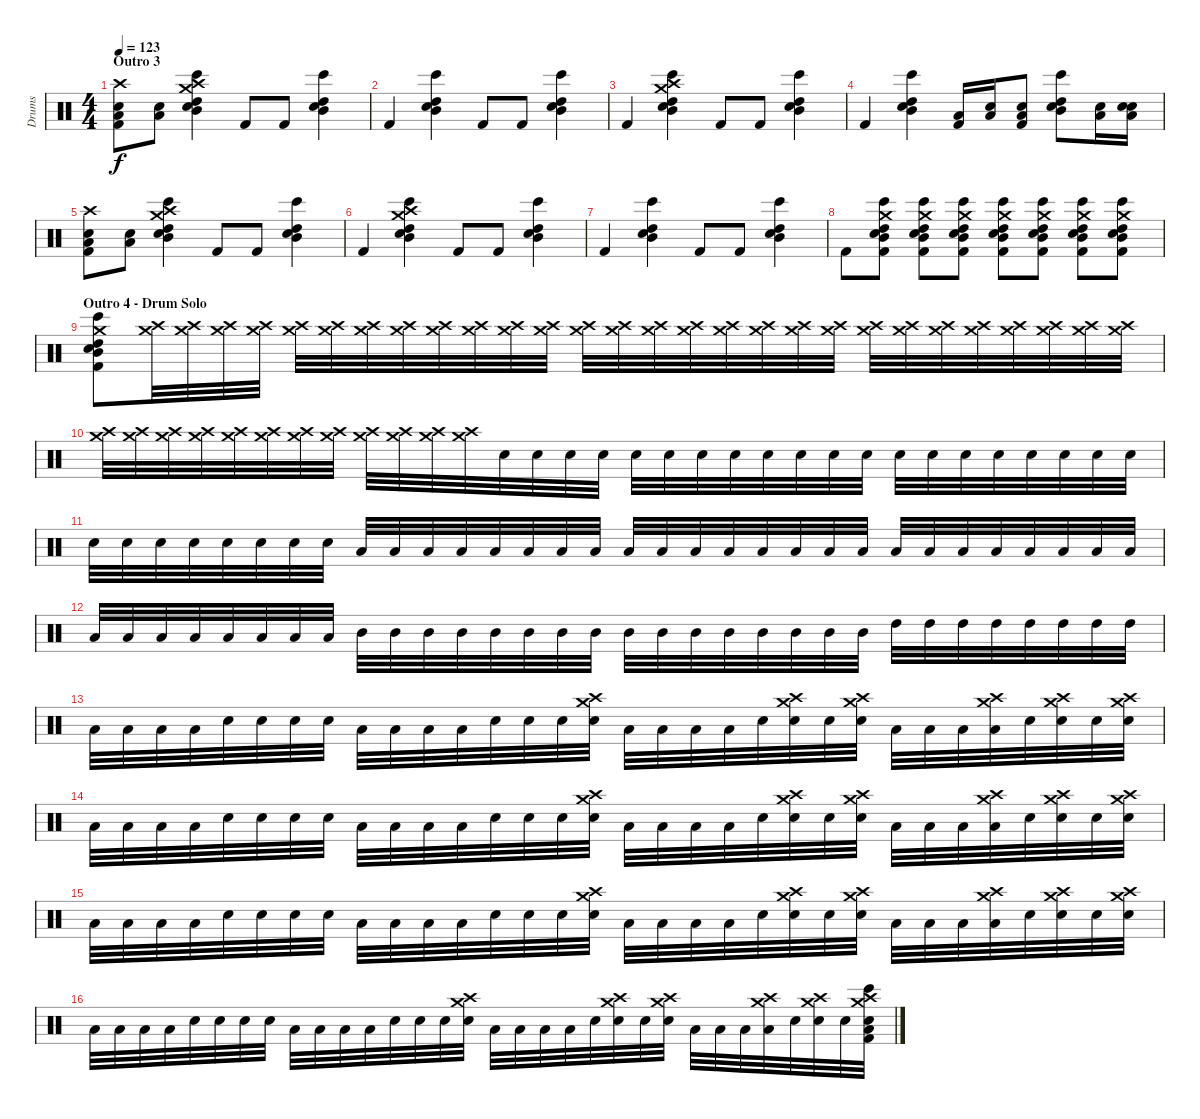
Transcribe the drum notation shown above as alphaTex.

\track ("Drums" "Drums") {instrument percussion}
\staff {score}
\articulation defaults
\ts (4 4)
\section ("" "Outro 3")
\tempo 123
\clef neutral
\ks c
("Crash high (hit)" "Snare (hit) 2" "Low Floor Tom (hit)" "Kick (hit) 2").8{dy f} ("Snare (hit) 2" "Low Floor Tom (hit)").8 ("Crash high (hit)" "Bongo High (hit)" "High Tom (hit)" "Mid Tom (hit)" "Snare (hit) 2" "Crash medium (hit)").4 "Kick (hit) 2".8 "Kick (hit) 2".8 ("Bongo High (hit)" "High Tom (hit)" "Mid Tom (hit)" "Snare (hit) 2").4 |
"Kick (hit) 2".4 ("Bongo High (hit)" "High Tom (hit)" "Mid Tom (hit)" "Snare (hit) 2").4 "Kick (hit) 2".8 "Kick (hit) 2".8 ("Bongo High (hit)" "High Tom (hit)" "Mid Tom (hit)" "Snare (hit) 2").4 |
"Kick (hit) 2".4 ("Crash high (hit)" "Bongo High (hit)" "High Tom (hit)" "Mid Tom (hit)" "Snare (hit) 2" "Crash medium (hit)").4 "Kick (hit) 2".8 "Kick (hit) 2".8 ("Bongo High (hit)" "High Tom (hit)" "Mid Tom (hit)" "Snare (hit) 2").4 |
"Kick (hit) 2".4 ("Bongo High (hit)" "High Tom (hit)" "Mid Tom (hit)" "Snare (hit) 2").4 ("Low Floor Tom (hit)" "Kick (hit) 2").16 ("Snare (hit) 2" "Low Floor Tom (hit)").16 ("Snare (hit) 2" "Low Floor Tom (hit)" "Kick (hit) 2").8 ("Bongo High (hit)" "High Tom (hit)" "Mid Tom (hit)" "Snare (hit) 2").8 ("Low Floor Tom (hit)" "Snare (hit) 2").16 ("Snare (hit) 2" "Low Floor Tom (hit)" "Snare (hit) 2").16 |
("Crash high (hit)" "Snare (hit) 2" "Low Floor Tom (hit)" "Kick (hit) 2").8 ("Snare (hit) 2" "Low Floor Tom (hit)").8 ("Crash high (hit)" "Bongo High (hit)" "High Tom (hit)" "Mid Tom (hit)" "Snare (hit) 2" "Crash medium (hit)").4 "Kick (hit) 2".8 "Kick (hit) 2".8 ("Bongo High (hit)" "High Tom (hit)" "Mid Tom (hit)" "Snare (hit) 2").4 |
"Kick (hit) 2".4 ("Crash high (hit)" "Bongo High (hit)" "High Tom (hit)" "Mid Tom (hit)" "Snare (hit) 2" "Crash medium (hit)").4 "Kick (hit) 2".8 "Kick (hit) 2".8 ("Bongo High (hit)" "High Tom (hit)" "Mid Tom (hit)" "Snare (hit) 2").4 |
"Kick (hit) 2".4 ("Bongo High (hit)" "High Tom (hit)" "Mid Tom (hit)" "Snare (hit) 2").4 "Kick (hit) 2".8 "Kick (hit) 2".8 ("Bongo High (hit)" "High Tom (hit)" "Mid Tom (hit)" "Snare (hit) 2").4 |
"Kick (hit) 2".8 ("Crash medium (hit)" "Bongo High (hit)" "High Tom (hit)" "Mid Tom (hit)" "Snare (hit) 2" "Kick (hit) 2").8 ("Crash medium (hit)" "Bongo High (hit)" "High Tom (hit)" "Mid Tom (hit)" "Snare (hit) 2" "Kick (hit) 2").8 ("Crash medium (hit)" "Bongo High (hit)" "High Tom (hit)" "Mid Tom (hit)" "Snare (hit) 2" "Kick (hit) 2").8 ("Crash medium (hit)" "Bongo High (hit)" "High Tom (hit)" "Mid Tom (hit)" "Snare (hit) 2" "Kick (hit) 2").8 ("Crash medium (hit)" "Bongo High (hit)" "High Tom (hit)" "Mid Tom (hit)" "Snare (hit) 2" "Kick (hit) 2").8 ("Crash medium (hit)" "Bongo High (hit)" "High Tom (hit)" "Mid Tom (hit)" "Snare (hit) 2" "Kick (hit) 2").8 ("Crash medium (hit)" "Bongo High (hit)" "High Tom (hit)" "Mid Tom (hit)" "Snare (hit) 2" "Kick (hit) 2").8 |
\section ("" "Outro 4 - Drum Solo")
("Crash medium (hit)" "Bongo High (hit)" "High Tom (hit)" "Mid Tom (hit)" "Snare (hit) 2" "Kick (hit) 2").8 ("Crash medium (hit)" "Crash high (hit)").32 ("Crash medium (hit)" "Crash high (hit)").32 ("Crash medium (hit)" "Crash high (hit)").32 ("Crash medium (hit)" "Crash high (hit)").32 ("Crash medium (hit)" "Crash high (hit)").32 ("Crash medium (hit)" "Crash high (hit)").32 ("Crash medium (hit)" "Crash high (hit)").32 ("Crash medium (hit)" "Crash high (hit)").32 ("Crash medium (hit)" "Crash high (hit)").32 ("Crash medium (hit)" "Crash high (hit)").32 ("Crash medium (hit)" "Crash high (hit)").32 ("Crash medium (hit)" "Crash high (hit)").32 ("Crash medium (hit)" "Crash high (hit)").32 ("Crash medium (hit)" "Crash high (hit)").32 ("Crash medium (hit)" "Crash high (hit)").32 ("Crash medium (hit)" "Crash high (hit)").32 ("Crash medium (hit)" "Crash high (hit)").32 ("Crash medium (hit)" "Crash high (hit)").32 ("Crash medium (hit)" "Crash high (hit)").32 ("Crash medium (hit)" "Crash high (hit)").32 ("Crash medium (hit)" "Crash high (hit)").32 ("Crash medium (hit)" "Crash high (hit)").32 ("Crash medium (hit)" "Crash high (hit)").32 ("Crash medium (hit)" "Crash high (hit)").32 ("Crash medium (hit)" "Crash high (hit)").32 ("Crash medium (hit)" "Crash high (hit)").32 ("Crash medium (hit)" "Crash high (hit)").32 ("Crash medium (hit)" "Crash high (hit)").32 |
("Crash medium (hit)" "Crash high (hit)").32 ("Crash medium (hit)" "Crash high (hit)").32 ("Crash medium (hit)" "Crash high (hit)").32 ("Crash medium (hit)" "Crash high (hit)").32 ("Crash medium (hit)" "Crash high (hit)").32 ("Crash medium (hit)" "Crash high (hit)").32 ("Crash medium (hit)" "Crash high (hit)").32 ("Crash medium (hit)" "Crash high (hit)").32 ("Crash medium (hit)" "Crash high (hit)").32 ("Crash medium (hit)" "Crash high (hit)").32 ("Crash medium (hit)" "Crash high (hit)").32 ("Crash medium (hit)" "Crash high (hit)").32 "Snare (hit) 2".32 "Snare (hit) 2".32 "Snare (hit) 2".32 "Snare (hit) 2".32 "Snare (hit) 2".32 "Snare (hit) 2".32 "Snare (hit) 2".32 "Snare (hit) 2".32 "Snare (hit) 2".32 "Snare (hit) 2".32 "Snare (hit) 2".32 "Snare (hit) 2".32 "Snare (hit) 2".32 "Snare (hit) 2".32 "Snare (hit) 2".32 "Snare (hit) 2".32 "Snare (hit) 2".32 "Snare (hit) 2".32 "Snare (hit) 2".32 "Snare (hit) 2".32 |
"Snare (hit) 2".32 "Snare (hit) 2".32 "Snare (hit) 2".32 "Snare (hit) 2".32 "Snare (hit) 2".32 "Snare (hit) 2".32 "Snare (hit) 2".32 "Snare (hit) 2".32 "Low Floor Tom (hit)".32 "Low Floor Tom (hit)".32 "Low Floor Tom (hit)".32 "Low Floor Tom (hit)".32 "Low Floor Tom (hit)".32 "Low Floor Tom (hit)".32 "Low Floor Tom (hit)".32 "Low Floor Tom (hit)".32 "Low Floor Tom (hit)".32 "Low Floor Tom (hit)".32 "Low Floor Tom (hit)".32 "Low Floor Tom (hit)".32 "Low Floor Tom (hit)".32 "Low Floor Tom (hit)".32 "Low Floor Tom (hit)".32 "Low Floor Tom (hit)".32 "Low Floor Tom (hit)".32 "Low Floor Tom (hit)".32 "Low Floor Tom (hit)".32 "Low Floor Tom (hit)".32 "Low Floor Tom (hit)".32 "Low Floor Tom (hit)".32 "Low Floor Tom (hit)".32 "Low Floor Tom (hit)".32 |
"Low Floor Tom (hit)".32 "Low Floor Tom (hit)".32 "Low Floor Tom (hit)".32 "Low Floor Tom (hit)".32 "Low Floor Tom (hit)".32 "Low Floor Tom (hit)".32 "Low Floor Tom (hit)".32 "Low Floor Tom (hit)".32 "Mid Tom (hit)".32 "Mid Tom (hit)".32 "Mid Tom (hit)".32 "Mid Tom (hit)".32 "Mid Tom (hit)".32 "Mid Tom (hit)".32 "Mid Tom (hit)".32 "Mid Tom (hit)".32 "Mid Tom (hit)".32 "Mid Tom (hit)".32 "Mid Tom (hit)".32 "Mid Tom (hit)".32 "Mid Tom (hit)".32 "Mid Tom (hit)".32 "Mid Tom (hit)".32 "Mid Tom (hit)".32 "High Tom (hit)".32 "High Tom (hit)".32 "High Tom (hit)".32 "High Tom (hit)".32 "High Tom (hit)".32 "High Tom (hit)".32 "High Tom (hit)".32 "High Tom (hit)".32 |
"Low Floor Tom (hit)".32 "Low Floor Tom (hit)".32 "Low Floor Tom (hit)".32 "Low Floor Tom (hit)".32 "Snare (hit) 2".32 "Snare (hit) 2".32 "Snare (hit) 2".32 "Snare (hit) 2".32 "Low Floor Tom (hit)".32 "Low Floor Tom (hit)".32 "Low Floor Tom (hit)".32 "Low Floor Tom (hit)".32 "Snare (hit) 2".32 "Snare (hit) 2".32 "Snare (hit) 2".32 ("Crash high (hit)" "Crash medium (hit)" "Snare (hit) 2").32 "Low Floor Tom (hit)".32 "Low Floor Tom (hit)".32 "Low Floor Tom (hit)".32 "Low Floor Tom (hit)".32 "Snare (hit) 2".32 ("Crash high (hit)" "Crash medium (hit)" "Snare (hit) 2").32 "Snare (hit) 2".32 ("Crash high (hit)" "Crash medium (hit)" "Snare (hit) 2").32 "Low Floor Tom (hit)".32 "Low Floor Tom (hit)".32 "Low Floor Tom (hit)".32 ("Crash high (hit)" "Crash medium (hit)" "Low Floor Tom (hit)").32 "Snare (hit) 2".32 ("Crash high (hit)" "Crash medium (hit)" "Snare (hit) 2").32 "Snare (hit) 2".32 ("Crash high (hit)" "Crash medium (hit)" "Snare (hit) 2").32 |
"Low Floor Tom (hit)".32 "Low Floor Tom (hit)".32 "Low Floor Tom (hit)".32 "Low Floor Tom (hit)".32 "Snare (hit) 2".32 "Snare (hit) 2".32 "Snare (hit) 2".32 "Snare (hit) 2".32 "Low Floor Tom (hit)".32 "Low Floor Tom (hit)".32 "Low Floor Tom (hit)".32 "Low Floor Tom (hit)".32 "Snare (hit) 2".32 "Snare (hit) 2".32 "Snare (hit) 2".32 ("Crash high (hit)" "Crash medium (hit)" "Snare (hit) 2").32 "Low Floor Tom (hit)".32 "Low Floor Tom (hit)".32 "Low Floor Tom (hit)".32 "Low Floor Tom (hit)".32 "Snare (hit) 2".32 ("Crash high (hit)" "Crash medium (hit)" "Snare (hit) 2").32 "Snare (hit) 2".32 ("Crash high (hit)" "Crash medium (hit)" "Snare (hit) 2").32 "Low Floor Tom (hit)".32 "Low Floor Tom (hit)".32 "Low Floor Tom (hit)".32 ("Crash high (hit)" "Crash medium (hit)" "Low Floor Tom (hit)").32 "Snare (hit) 2".32 ("Crash high (hit)" "Crash medium (hit)" "Snare (hit) 2").32 "Snare (hit) 2".32 ("Crash high (hit)" "Crash medium (hit)" "Snare (hit) 2").32 |
"Low Floor Tom (hit)".32 "Low Floor Tom (hit)".32 "Low Floor Tom (hit)".32 "Low Floor Tom (hit)".32 "Snare (hit) 2".32 "Snare (hit) 2".32 "Snare (hit) 2".32 "Snare (hit) 2".32 "Low Floor Tom (hit)".32 "Low Floor Tom (hit)".32 "Low Floor Tom (hit)".32 "Low Floor Tom (hit)".32 "Snare (hit) 2".32 "Snare (hit) 2".32 "Snare (hit) 2".32 ("Crash high (hit)" "Crash medium (hit)" "Snare (hit) 2").32 "Low Floor Tom (hit)".32 "Low Floor Tom (hit)".32 "Low Floor Tom (hit)".32 "Low Floor Tom (hit)".32 "Snare (hit) 2".32 ("Crash high (hit)" "Crash medium (hit)" "Snare (hit) 2").32 "Snare (hit) 2".32 ("Crash high (hit)" "Crash medium (hit)" "Snare (hit) 2").32 "Low Floor Tom (hit)".32 "Low Floor Tom (hit)".32 "Low Floor Tom (hit)".32 ("Crash high (hit)" "Crash medium (hit)" "Low Floor Tom (hit)").32 "Snare (hit) 2".32 ("Crash high (hit)" "Crash medium (hit)" "Snare (hit) 2").32 "Snare (hit) 2".32 ("Crash high (hit)" "Crash medium (hit)" "Snare (hit) 2").32 |
"Low Floor Tom (hit)".32 "Low Floor Tom (hit)".32 "Low Floor Tom (hit)".32 "Low Floor Tom (hit)".32 "Snare (hit) 2".32 "Snare (hit) 2".32 "Snare (hit) 2".32 "Snare (hit) 2".32 "Low Floor Tom (hit)".32 "Low Floor Tom (hit)".32 "Low Floor Tom (hit)".32 "Low Floor Tom (hit)".32 "Snare (hit) 2".32 "Snare (hit) 2".32 "Snare (hit) 2".32 ("Crash high (hit)" "Crash medium (hit)" "Snare (hit) 2").32 "Low Floor Tom (hit)".32 "Low Floor Tom (hit)".32 "Low Floor Tom (hit)".32 "Low Floor Tom (hit)".32 "Snare (hit) 2".32 ("Crash high (hit)" "Crash medium (hit)" "Snare (hit) 2").32 "Snare (hit) 2".32 ("Crash high (hit)" "Crash medium (hit)" "Snare (hit) 2").32 "Low Floor Tom (hit)".32 "Low Floor Tom (hit)".32 "Low Floor Tom (hit)".32 ("Crash high (hit)" "Crash medium (hit)" "Low Floor Tom (hit)").32 "Snare (hit) 2".32 ("Crash high (hit)" "Crash medium (hit)" "Snare (hit) 2").32 "Snare (hit) 2".32 ("Bongo High (hit)" "Low Floor Tom (hit)" "Crash high (hit)" "Crash medium (hit)" "Snare (hit) 2" "Kick (hit) 2").32
